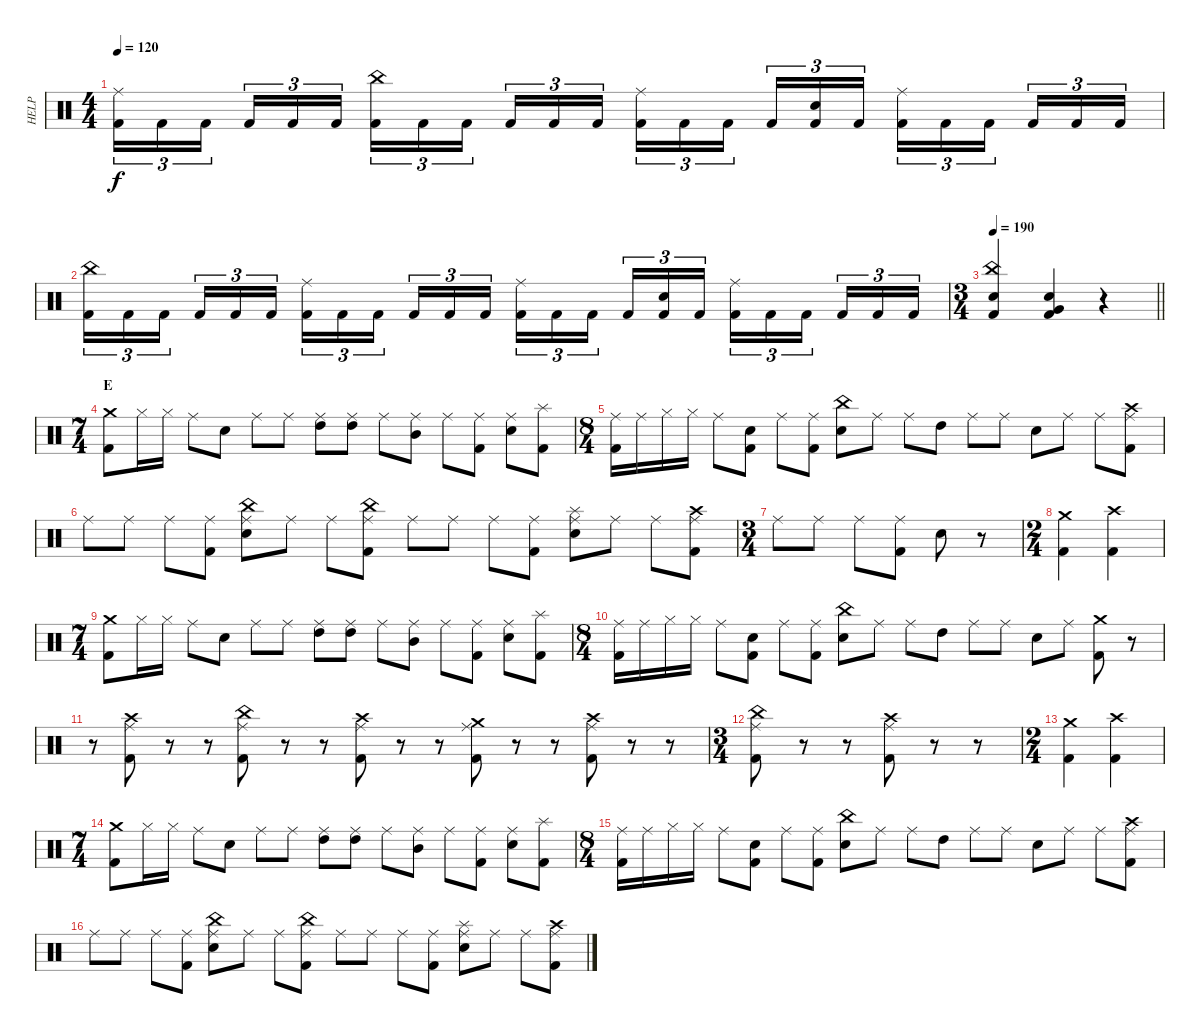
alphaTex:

\track ("HELP" "HELP") {instrument percussion}
\staff {score}
\articulation defaults
\ts (4 4)
\tempo 120
\clef neutral
\ks c
("Ride (middle)" "Kick (hit) 2").16{tu (3 2) dy f} "Kick (hit) 2".16{tu (3 2)} "Kick (hit) 2".16{tu (3 2) beam splitsecondary} "Kick (hit) 2".16{tu (3 2)} "Kick (hit) 2".16{tu (3 2)} "Kick (hit) 2".16{tu (3 2)} ("China (hit)" "Kick (hit) 2").16{tu (3 2)} "Kick (hit) 2".16{tu (3 2)} "Kick (hit) 2".16{tu (3 2) beam splitsecondary} "Kick (hit) 2".16{tu (3 2)} "Kick (hit) 2".16{tu (3 2)} "Kick (hit) 2".16{tu (3 2)} ("Ride (middle)" "Kick (hit) 2").16{tu (3 2)} "Kick (hit) 2".16{tu (3 2)} "Kick (hit) 2".16{tu (3 2) beam splitsecondary} "Kick (hit) 2".16{tu (3 2)} ("Electric Snare (hit)" "Kick (hit) 2").16{tu (3 2)} "Kick (hit) 2".16{tu (3 2)} ("Ride (middle)" "Kick (hit) 2").16{tu (3 2)} "Kick (hit) 2".16{tu (3 2)} "Kick (hit) 2".16{tu (3 2) beam splitsecondary} "Kick (hit) 2".16{tu (3 2)} "Kick (hit) 2".16{tu (3 2)} "Kick (hit) 2".16{tu (3 2)} |
("China (hit)" "Kick (hit) 2").16{tu (3 2)} "Kick (hit) 2".16{tu (3 2)} "Kick (hit) 2".16{tu (3 2) beam splitsecondary} "Kick (hit) 2".16{tu (3 2)} "Kick (hit) 2".16{tu (3 2)} "Kick (hit) 2".16{tu (3 2)} ("Ride (middle)" "Kick (hit) 2").16{tu (3 2)} "Kick (hit) 2".16{tu (3 2)} "Kick (hit) 2".16{tu (3 2) beam splitsecondary} "Kick (hit) 2".16{tu (3 2)} "Kick (hit) 2".16{tu (3 2)} "Kick (hit) 2".16{tu (3 2)} ("Ride (middle)" "Kick (hit) 2").16{tu (3 2)} "Kick (hit) 2".16{tu (3 2)} "Kick (hit) 2".16{tu (3 2) beam splitsecondary} "Kick (hit) 2".16{tu (3 2)} ("Electric Snare (hit)" "Kick (hit) 2").16{tu (3 2)} "Kick (hit) 2".16{tu (3 2)} ("Ride (middle)" "Kick (hit) 2").16{tu (3 2)} "Kick (hit) 2".16{tu (3 2)} "Kick (hit) 2".16{tu (3 2) beam splitsecondary} "Kick (hit) 2".16{tu (3 2)} "Kick (hit) 2".16{tu (3 2)} "Kick (hit) 2".16{tu (3 2)} |
\ts (3 4)
\tempo 190
\barLineRight lightlight
("China (hit)" "Snare (hit) 2" "Kick (hit) 2").4 ("Very Low Tom (hit)" "Snare (hit) 2" "Kick (hit) 2").4 r.4 |
\ts (7 4)
\section ("" "E")
("Crash medium (hit)" "Kick (hit) 2").8 "Hi-Hat (closed)".16 "Hi-Hat (closed)".16 "Ride (middle)".8 "Snare (hit) 2".8 "Ride (middle)".8 "Ride (middle)".8 ("Ride (middle)" "High Tom (hit)").8 ("Ride (middle)" "High Tom (hit)").8 "Ride (middle)".8 ("Ride (middle)" "Mid Tom (hit)").8 "Ride (middle)".8 ("Ride (middle)" "Kick (hit) 2").8 ("Ride (middle)" "Snare (hit) 2").8 ("Splash (hit)" "Kick (hit) 2").8 |
\ts (8 4)
("Ride (middle)" "Kick (hit) 2").16 "Ride (middle)".16 "Hi-Hat (closed)".16 "Hi-Hat (closed)".16 "Ride (middle)".8 ("Snare (hit) 2" "Kick (hit) 2").8 "Ride (middle)".8 ("Ride (middle)" "Kick (hit) 2").8 ("China (hit)" "Snare (hit) 2").8 "Ride (middle)".8 "Ride (middle)".8 "High Tom (hit)".8 "Ride (middle)".8 "Ride (middle)".8 "Snare (hit) 2".8 "Ride (middle)".8 "Ride (middle)".8 ("Crash high (hit)" "Ride (middle)" "Kick (hit) 2").8 |
"Ride (middle)".8 "Ride (middle)".8 "Ride (middle)".8 ("Ride (middle)" "Kick (hit) 2").8 ("China (hit)" "Ride (middle)" "Snare (hit) 2").8 "Ride (middle)".8 "Ride (middle)".8 ("Ride (middle)" "China (hit)" "Kick (hit) 2").8 "Ride (middle)".8 "Ride (middle)".8 "Ride (middle)".8 ("Ride (middle)" "Kick (hit) 2").8 ("Splash (hit)" "Ride (middle)" "Snare (hit) 2").8 "Ride (middle)".8 "Ride (middle)".8 ("Crash high (hit)" "Ride (middle)" "Kick (hit) 2").8 |
\ts (3 4)
"Ride (middle)".8 "Ride (middle)".8 "Ride (middle)".8 ("Ride (middle)" "Kick (hit) 2").8 "Snare (hit) 2".8 r.8 |
\ts (2 4)
("Crash medium (hit)" "Kick (hit) 2").4 ("Crash high (hit)" "Kick (hit) 2").4 |
\ts (7 4)
("Crash medium (hit)" "Kick (hit) 2").8 "Hi-Hat (closed)".16 "Hi-Hat (closed)".16 "Ride (middle)".8 "Snare (hit) 2".8 "Ride (middle)".8 "Ride (middle)".8 ("Ride (middle)" "High Tom (hit)").8 ("Ride (middle)" "High Tom (hit)").8 "Ride (middle)".8 ("Ride (middle)" "Mid Tom (hit)").8 "Ride (middle)".8 ("Ride (middle)" "Kick (hit) 2").8 ("Ride (middle)" "Snare (hit) 2").8 ("Splash (hit)" "Kick (hit) 2").8 |
\ts (8 4)
("Ride (middle)" "Kick (hit) 2").16 "Ride (middle)".16 "Hi-Hat (closed)".16 "Hi-Hat (closed)".16 "Ride (middle)".8 ("Snare (hit) 2" "Kick (hit) 2").8 "Ride (middle)".8 ("Ride (middle)" "Kick (hit) 2").8 ("China (hit)" "Snare (hit) 2").8 "Ride (middle)".8 "Ride (middle)".8 "High Tom (hit)".8 "Ride (middle)".8 "Ride (middle)".8 "Snare (hit) 2".8 "Ride (middle)".8 ("Crash medium (hit)" "Kick (hit) 2").8 r.8 |
r.8 ("Crash high (hit)" "Ride (middle)" "Kick (hit) 2").8 r.8 r.8 ("China (hit)" "Ride (middle)" "Kick (hit) 2").8 r.8 r.8 ("Crash high (hit)" "Ride (middle)" "Kick (hit) 2").8 r.8 r.8 ("Crash medium (hit)" "Ride (middle)" "Kick (hit) 2").8 r.8 r.8 ("Crash high (hit)" "Ride (middle)" "Kick (hit) 2").8 r.8 r.8 |
\ts (3 4)
("China (hit)" "Ride (middle)" "Kick (hit) 2").8 r.8 r.8 ("Crash high (hit)" "Ride (middle)" "Kick (hit) 2").8 r.8 r.8 |
\ts (2 4)
("Crash medium (hit)" "Kick (hit) 2").4 ("Crash high (hit)" "Kick (hit) 2").4 |
\ts (7 4)
("Crash medium (hit)" "Kick (hit) 2").8 "Hi-Hat (closed)".16 "Hi-Hat (closed)".16 "Ride (middle)".8 "Snare (hit) 2".8 "Ride (middle)".8 "Ride (middle)".8 ("Ride (middle)" "High Tom (hit)").8 ("Ride (middle)" "High Tom (hit)").8 "Ride (middle)".8 ("Ride (middle)" "Mid Tom (hit)").8 "Ride (middle)".8 ("Ride (middle)" "Kick (hit) 2").8 ("Ride (middle)" "Snare (hit) 2").8 ("Splash (hit)" "Kick (hit) 2").8 |
\ts (8 4)
("Ride (middle)" "Kick (hit) 2").16 "Ride (middle)".16 "Hi-Hat (closed)".16 "Hi-Hat (closed)".16 "Ride (middle)".8 ("Snare (hit) 2" "Kick (hit) 2").8 "Ride (middle)".8 ("Ride (middle)" "Kick (hit) 2").8 ("China (hit)" "Snare (hit) 2").8 "Ride (middle)".8 "Ride (middle)".8 "High Tom (hit)".8 "Ride (middle)".8 "Ride (middle)".8 "Snare (hit) 2".8 "Ride (middle)".8 "Ride (middle)".8 ("Crash high (hit)" "Ride (middle)" "Kick (hit) 2").8 |
"Ride (middle)".8 "Ride (middle)".8 "Ride (middle)".8 ("Ride (middle)" "Kick (hit) 2").8 ("China (hit)" "Ride (middle)" "Snare (hit) 2").8 "Ride (middle)".8 "Ride (middle)".8 ("Ride (middle)" "China (hit)" "Kick (hit) 2").8 "Ride (middle)".8 "Ride (middle)".8 "Ride (middle)".8 ("Ride (middle)" "Kick (hit) 2").8 ("Splash (hit)" "Ride (middle)" "Snare (hit) 2").8 "Ride (middle)".8 "Ride (middle)".8 ("Crash high (hit)" "Ride (middle)" "Kick (hit) 2").8
